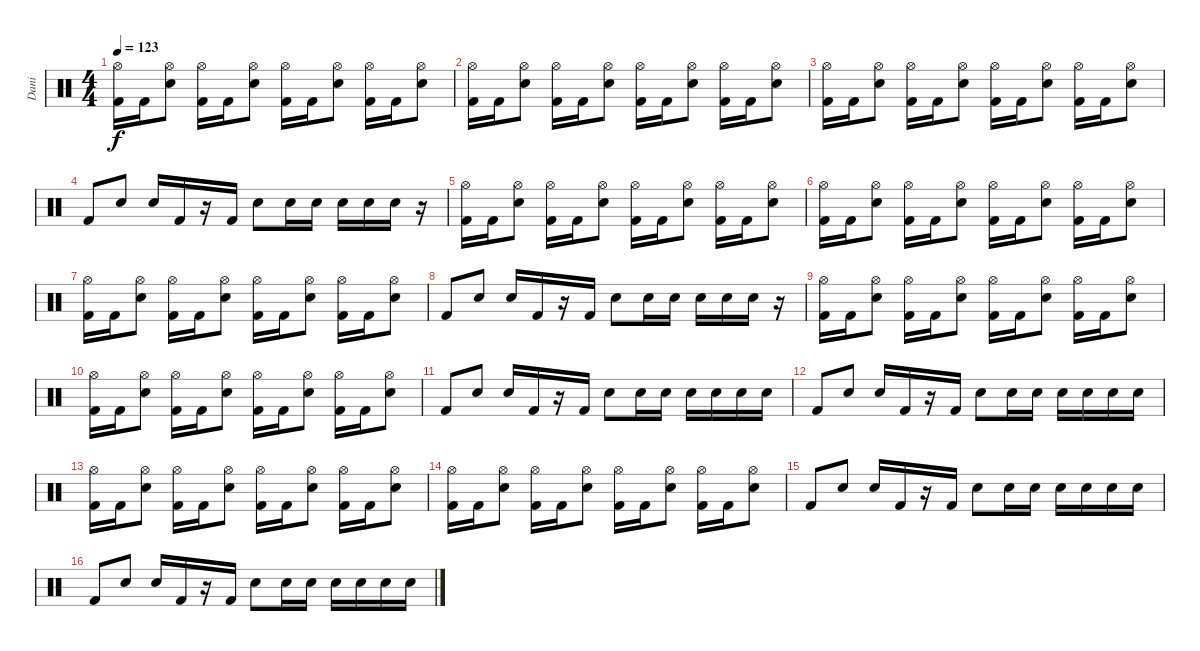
\track ("Dani" "Dani") {instrument percussion}
\staff {score}
\articulation defaults
\ts (4 4)
\tempo 123
\clef neutral
\ks c
("Hi-Hat (open)" "Kick (hit) 2").16{dy f} "Kick (hit) 2".16 ("Hi-Hat (open)" "Electric Snare (hit)").8 ("Hi-Hat (open)" "Kick (hit) 2").16 "Kick (hit) 2".16 ("Hi-Hat (open)" "Electric Snare (hit)").8 ("Hi-Hat (open)" "Kick (hit) 2").16 "Kick (hit) 2".16 ("Hi-Hat (open)" "Electric Snare (hit)").8 ("Hi-Hat (open)" "Kick (hit) 2").16 "Kick (hit) 2".16 ("Hi-Hat (open)" "Electric Snare (hit)").8 |
("Hi-Hat (open)" "Kick (hit) 2").16 "Kick (hit) 2".16 ("Hi-Hat (open)" "Electric Snare (hit)").8 ("Hi-Hat (open)" "Kick (hit) 2").16 "Kick (hit) 2".16 ("Hi-Hat (open)" "Electric Snare (hit)").8 ("Hi-Hat (open)" "Kick (hit) 2").16 "Kick (hit) 2".16 ("Hi-Hat (open)" "Electric Snare (hit)").8 ("Hi-Hat (open)" "Kick (hit) 2").16 "Kick (hit) 2".16 ("Hi-Hat (open)" "Electric Snare (hit)").8 |
("Hi-Hat (open)" "Kick (hit) 2").16 "Kick (hit) 2".16 ("Hi-Hat (open)" "Electric Snare (hit)").8 ("Hi-Hat (open)" "Kick (hit) 2").16 "Kick (hit) 2".16 ("Hi-Hat (open)" "Electric Snare (hit)").8 ("Hi-Hat (open)" "Kick (hit) 2").16 "Kick (hit) 2".16 ("Hi-Hat (open)" "Electric Snare (hit)").8 ("Hi-Hat (open)" "Kick (hit) 2").16 "Kick (hit) 2".16 ("Hi-Hat (open)" "Electric Snare (hit)").8 |
"Kick (hit) 2".8 "Electric Snare (hit)".8 "Electric Snare (hit)".16 "Kick (hit) 2".16 r.16 "Kick (hit) 2".16 "Electric Snare (hit)".8 "Electric Snare (hit)".16 "Electric Snare (hit)".16 "Electric Snare (hit)".16 "Electric Snare (hit)".16 "Electric Snare (hit)".16 r.16 |
("Hi-Hat (open)" "Kick (hit) 2").16 "Kick (hit) 2".16 ("Hi-Hat (open)" "Electric Snare (hit)").8 ("Hi-Hat (open)" "Kick (hit) 2").16 "Kick (hit) 2".16 ("Hi-Hat (open)" "Electric Snare (hit)").8 ("Hi-Hat (open)" "Kick (hit) 2").16 "Kick (hit) 2".16 ("Hi-Hat (open)" "Electric Snare (hit)").8 ("Hi-Hat (open)" "Kick (hit) 2").16 "Kick (hit) 2".16 ("Hi-Hat (open)" "Electric Snare (hit)").8 |
("Hi-Hat (open)" "Kick (hit) 2").16 "Kick (hit) 2".16 ("Hi-Hat (open)" "Electric Snare (hit)").8 ("Hi-Hat (open)" "Kick (hit) 2").16 "Kick (hit) 2".16 ("Hi-Hat (open)" "Electric Snare (hit)").8 ("Hi-Hat (open)" "Kick (hit) 2").16 "Kick (hit) 2".16 ("Hi-Hat (open)" "Electric Snare (hit)").8 ("Hi-Hat (open)" "Kick (hit) 2").16 "Kick (hit) 2".16 ("Hi-Hat (open)" "Electric Snare (hit)").8 |
("Hi-Hat (open)" "Kick (hit) 2").16 "Kick (hit) 2".16 ("Hi-Hat (open)" "Electric Snare (hit)").8 ("Hi-Hat (open)" "Kick (hit) 2").16 "Kick (hit) 2".16 ("Hi-Hat (open)" "Electric Snare (hit)").8 ("Hi-Hat (open)" "Kick (hit) 2").16 "Kick (hit) 2".16 ("Hi-Hat (open)" "Electric Snare (hit)").8 ("Hi-Hat (open)" "Kick (hit) 2").16 "Kick (hit) 2".16 ("Hi-Hat (open)" "Electric Snare (hit)").8 |
"Kick (hit) 2".8 "Electric Snare (hit)".8 "Electric Snare (hit)".16 "Kick (hit) 2".16 r.16 "Kick (hit) 2".16 "Electric Snare (hit)".8 "Electric Snare (hit)".16 "Electric Snare (hit)".16 "Electric Snare (hit)".16 "Electric Snare (hit)".16 "Electric Snare (hit)".16 r.16 |
("Hi-Hat (open)" "Kick (hit) 2").16 "Kick (hit) 2".16 ("Hi-Hat (open)" "Electric Snare (hit)").8 ("Hi-Hat (open)" "Kick (hit) 2").16 "Kick (hit) 2".16 ("Hi-Hat (open)" "Electric Snare (hit)").8 ("Hi-Hat (open)" "Kick (hit) 2").16 "Kick (hit) 2".16 ("Hi-Hat (open)" "Electric Snare (hit)").8 ("Hi-Hat (open)" "Kick (hit) 2").16 "Kick (hit) 2".16 ("Hi-Hat (open)" "Electric Snare (hit)").8 |
("Hi-Hat (open)" "Kick (hit) 2").16 "Kick (hit) 2".16 ("Hi-Hat (open)" "Electric Snare (hit)").8 ("Hi-Hat (open)" "Kick (hit) 2").16 "Kick (hit) 2".16 ("Hi-Hat (open)" "Electric Snare (hit)").8 ("Hi-Hat (open)" "Kick (hit) 2").16 "Kick (hit) 2".16 ("Hi-Hat (open)" "Electric Snare (hit)").8 ("Hi-Hat (open)" "Kick (hit) 2").16 "Kick (hit) 2".16 ("Hi-Hat (open)" "Electric Snare (hit)").8 |
"Kick (hit) 2".8 "Electric Snare (hit)".8 "Electric Snare (hit)".16 "Kick (hit) 2".16 r.16 "Kick (hit) 2".16 "Electric Snare (hit)".8 "Electric Snare (hit)".16 "Electric Snare (hit)".16 "Electric Snare (hit)".16 "Electric Snare (hit)".16 "Electric Snare (hit)".16 "Electric Snare (hit)".16 |
"Kick (hit) 2".8 "Electric Snare (hit)".8 "Electric Snare (hit)".16 "Kick (hit) 2".16 r.16 "Kick (hit) 2".16 "Electric Snare (hit)".8 "Electric Snare (hit)".16 "Electric Snare (hit)".16 "Electric Snare (hit)".16 "Electric Snare (hit)".16 "Electric Snare (hit)".16 "Electric Snare (hit)".16 |
("Hi-Hat (open)" "Kick (hit) 2").16 "Kick (hit) 2".16 ("Hi-Hat (open)" "Electric Snare (hit)").8 ("Hi-Hat (open)" "Kick (hit) 2").16 "Kick (hit) 2".16 ("Hi-Hat (open)" "Electric Snare (hit)").8 ("Hi-Hat (open)" "Kick (hit) 2").16 "Kick (hit) 2".16 ("Hi-Hat (open)" "Electric Snare (hit)").8 ("Hi-Hat (open)" "Kick (hit) 2").16 "Kick (hit) 2".16 ("Hi-Hat (open)" "Electric Snare (hit)").8 |
("Hi-Hat (open)" "Kick (hit) 2").16 "Kick (hit) 2".16 ("Hi-Hat (open)" "Electric Snare (hit)").8 ("Hi-Hat (open)" "Kick (hit) 2").16 "Kick (hit) 2".16 ("Hi-Hat (open)" "Electric Snare (hit)").8 ("Hi-Hat (open)" "Kick (hit) 2").16 "Kick (hit) 2".16 ("Hi-Hat (open)" "Electric Snare (hit)").8 ("Hi-Hat (open)" "Kick (hit) 2").16 "Kick (hit) 2".16 ("Hi-Hat (open)" "Electric Snare (hit)").8 |
"Kick (hit) 2".8 "Electric Snare (hit)".8 "Electric Snare (hit)".16 "Kick (hit) 2".16 r.16 "Kick (hit) 2".16 "Electric Snare (hit)".8 "Electric Snare (hit)".16 "Electric Snare (hit)".16 "Electric Snare (hit)".16 "Electric Snare (hit)".16 "Electric Snare (hit)".16 "Electric Snare (hit)".16 |
"Kick (hit) 2".8 "Electric Snare (hit)".8 "Electric Snare (hit)".16 "Kick (hit) 2".16 r.16 "Kick (hit) 2".16 "Electric Snare (hit)".8 "Electric Snare (hit)".16 "Electric Snare (hit)".16 "Electric Snare (hit)".16 "Electric Snare (hit)".16 "Electric Snare (hit)".16 "Electric Snare (hit)".16
